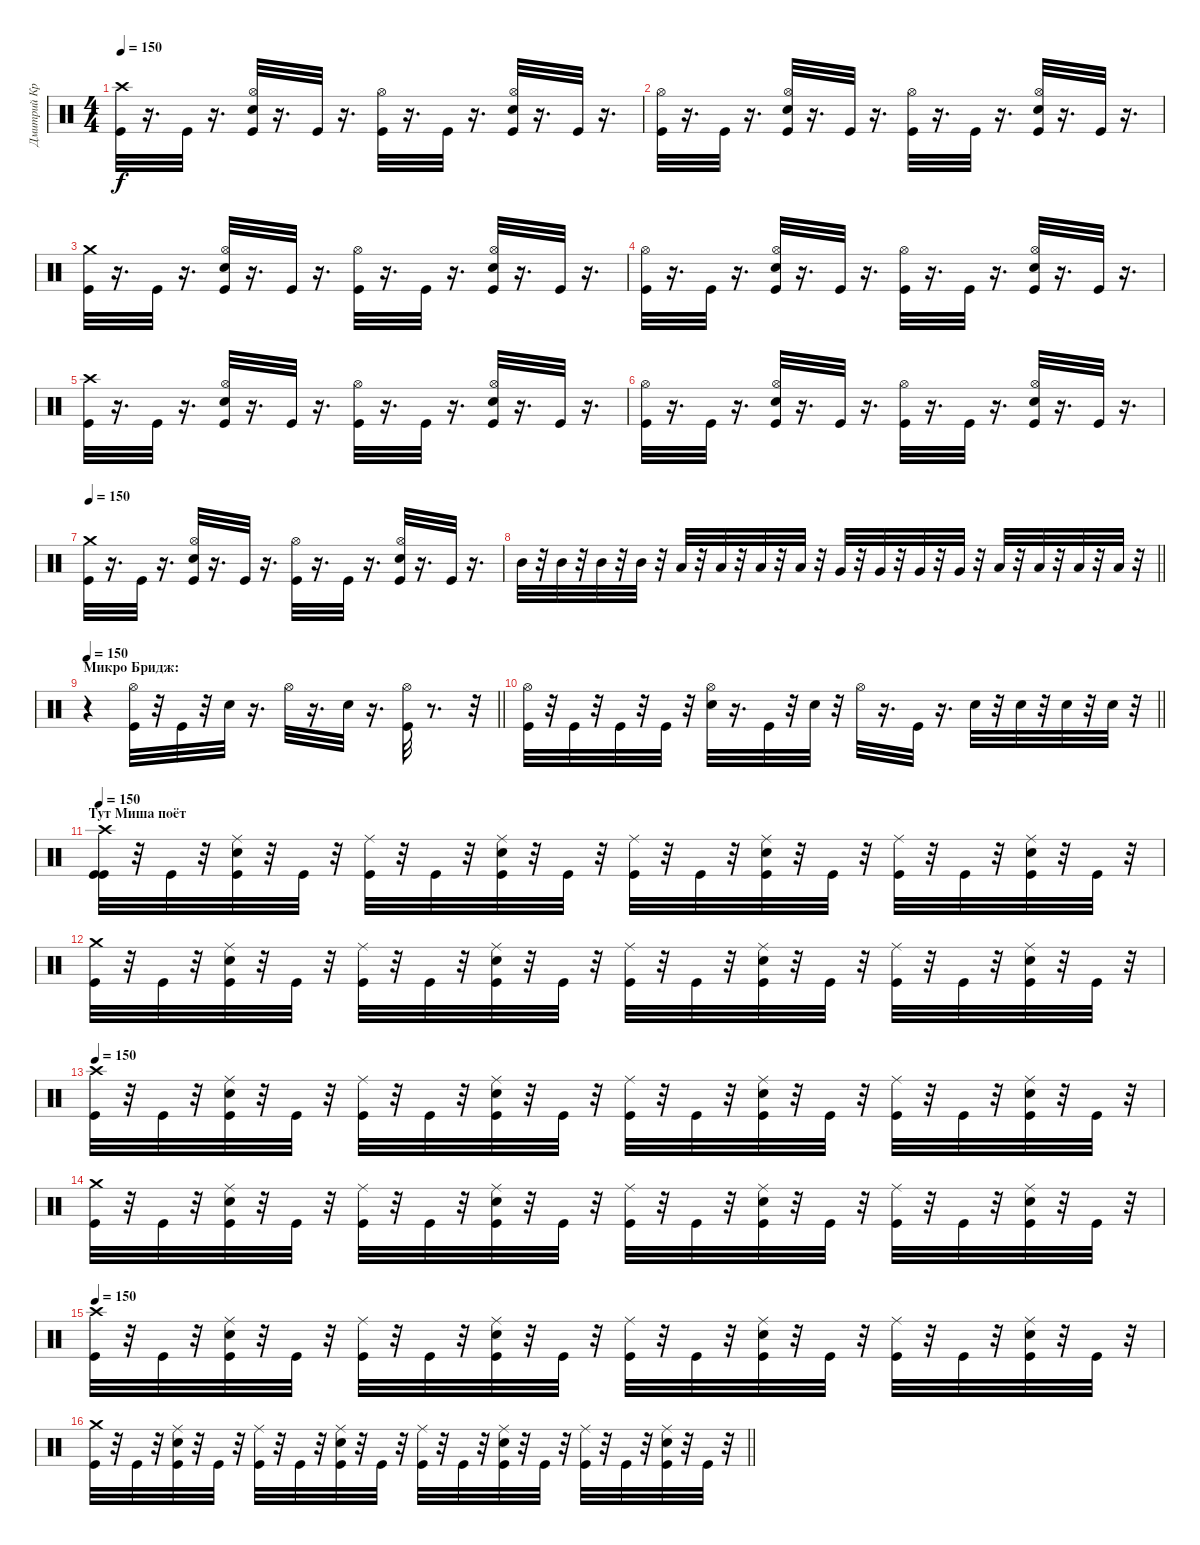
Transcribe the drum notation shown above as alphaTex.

\track ("Дмитрий Кривенков" "Дмитрий Кр") {instrument percussion}
\staff {score}
\articulation defaults
\ts (4 4)
\tempo 150
\clef neutral
\ks c
("Crash high (hit)" "Kick (hit)").32{dy f} r.16{d} "Kick (hit)".32 r.16{d} ("Hi-Hat (open)" "Electric Snare (hit)" "Kick (hit)").32 r.16{d} "Kick (hit)".32 r.16{d} ("Hi-Hat (open)" "Kick (hit)").32 r.16{d} "Kick (hit)".32 r.16{d} ("Hi-Hat (open)" "Electric Snare (hit)" "Kick (hit)").32 r.16{d} "Kick (hit)".32 r.16{d} |
("Hi-Hat (open)" "Kick (hit)").32 r.16{d} "Kick (hit)".32 r.16{d} ("Hi-Hat (open)" "Electric Snare (hit)" "Kick (hit)").32 r.16{d} "Kick (hit)".32 r.16{d} ("Hi-Hat (open)" "Kick (hit)").32 r.16{d} "Kick (hit)".32 r.16{d} ("Hi-Hat (open)" "Electric Snare (hit)" "Kick (hit)").32 r.16{d} "Kick (hit)".32 r.16{d} |
("Crash medium (hit)" "Kick (hit)").32 r.16{d} "Kick (hit)".32 r.16{d} ("Hi-Hat (open)" "Electric Snare (hit)" "Kick (hit)").32 r.16{d} "Kick (hit)".32 r.16{d} ("Hi-Hat (open)" "Kick (hit)").32 r.16{d} "Kick (hit)".32 r.16{d} ("Hi-Hat (open)" "Electric Snare (hit)" "Kick (hit)").32 r.16{d} "Kick (hit)".32 r.16{d} |
("Hi-Hat (open)" "Kick (hit)").32 r.16{d} "Kick (hit)".32 r.16{d} ("Hi-Hat (open)" "Electric Snare (hit)" "Kick (hit)").32 r.16{d} "Kick (hit)".32 r.16{d} ("Hi-Hat (open)" "Kick (hit)").32 r.16{d} "Kick (hit)".32 r.16{d} ("Hi-Hat (open)" "Electric Snare (hit)" "Kick (hit)").32 r.16{d} "Kick (hit)".32 r.16{d} |
("Crash high (hit)" "Kick (hit)").32 r.16{d} "Kick (hit)".32 r.16{d} ("Hi-Hat (open)" "Electric Snare (hit)" "Kick (hit)").32 r.16{d} "Kick (hit)".32 r.16{d} ("Hi-Hat (open)" "Kick (hit)").32 r.16{d} "Kick (hit)".32 r.16{d} ("Hi-Hat (open)" "Electric Snare (hit)" "Kick (hit)").32 r.16{d} "Kick (hit)".32 r.16{d} |
("Hi-Hat (open)" "Kick (hit)").32 r.16{d} "Kick (hit)".32 r.16{d} ("Hi-Hat (open)" "Electric Snare (hit)" "Kick (hit)").32 r.16{d} "Kick (hit)".32 r.16{d} ("Hi-Hat (open)" "Kick (hit)").32 r.16{d} "Kick (hit)".32 r.16{d} ("Hi-Hat (open)" "Electric Snare (hit)" "Kick (hit)").32 r.16{d} "Kick (hit)".32 r.16{d} |
\tempo 150
("Crash medium (hit)" "Kick (hit)").32 r.16{d} "Kick (hit)".32 r.16{d} ("Hi-Hat (open)" "Electric Snare (hit)" "Kick (hit)").32 r.16{d} "Kick (hit)".32 r.16{d} ("Hi-Hat (open)" "Kick (hit)").32 r.16{d} "Kick (hit)".32 r.16{d} ("Hi-Hat (open)" "Electric Snare (hit)" "Kick (hit)").32 r.16{d} "Kick (hit)".32 r.16{d} |
\barLineRight lightlight "Mid Tom (hit)".32
r.32 "Mid Tom (hit)".32 r.32 "Mid Tom (hit)".32 r.32 "Mid Tom (hit)".32 r.32 "Low Tom (hit)".32 r.32 "Low Tom (hit)".32 r.32 "Low Tom (hit)".32 r.32 "Low Tom (hit)".32 r.32 "Very Low Tom (hit)".32 r.32 "Very Low Tom (hit)".32 r.32 "Very Low Tom (hit)".32 r.32 "Very Low Tom (hit)".32 r.32 "Low Floor Tom (hit)".32 r.32 "Low Floor Tom (hit)".32 r.32 "Low Floor Tom (hit)".32 r.32 "Low Floor Tom (hit)".32 r.32 |
\section ("" "Микро Бридж:")
\tempo 150
\barLineRight lightlight
r.4 ("Hi-Hat (open)" "Kick (hit)").32 r.32 "Kick (hit)".32 r.32 "Electric Snare (hit)".32 r.16{d} "Hi-Hat (open)".32 r.16{d} "Electric Snare (hit)".32 r.16{d} ("Hi-Hat (open)" "Kick (hit)").32 r.8{d} r.32 |
\section ("" "")
\barLineRight lightlight
("Hi-Hat (open)" "Kick (hit)").32 r.32 "Kick (hit)".32 r.32 "Kick (hit)".32 r.32 "Kick (hit)".32 r.32 ("Hi-Hat (open)" "Electric Snare (hit)").32 r.16{d} "Kick (hit)".32 r.32 "Electric Snare (hit)".32 r.32 "Hi-Hat (open)".32 r.16{d} "Kick (hit)".32 r.16{d} "Electric Snare (hit)".32 r.32 "Electric Snare (hit)".32 r.32 "Electric Snare (hit)".32 r.32 "Electric Snare (hit)".32 r.32 |
\section ("" "Тут Миша поёт")
\tempo 150
("Kick (hit)" "Crash high (hit)" "Kick (hit)").32 r.32 "Kick (hit)".32 r.32 ("Ride (middle)" "Electric Snare (hit)" "Kick (hit)").32 r.32 "Kick (hit)".32 r.32 ("Ride (middle)" "Kick (hit)").32 r.32 "Kick (hit)".32 r.32 ("Ride (middle)" "Electric Snare (hit)" "Kick (hit)").32 r.32 "Kick (hit)".32 r.32 ("Ride (middle)" "Kick (hit)").32 r.32 "Kick (hit)".32 r.32 ("Ride (middle)" "Electric Snare (hit)" "Kick (hit)").32 r.32 "Kick (hit)".32 r.32 ("Ride (middle)" "Kick (hit)").32 r.32 "Kick (hit)".32 r.32 ("Ride (middle)" "Electric Snare (hit)" "Kick (hit)").32 r.32 "Kick (hit)".32 r.32 |
("Crash medium (hit)" "Kick (hit)").32 r.32 "Kick (hit)".32 r.32 ("Ride (middle)" "Electric Snare (hit)" "Kick (hit)").32 r.32 "Kick (hit)".32 r.32 ("Ride (middle)" "Kick (hit)").32 r.32 "Kick (hit)".32 r.32 ("Ride (middle)" "Electric Snare (hit)" "Kick (hit)").32 r.32 "Kick (hit)".32 r.32 ("Ride (middle)" "Kick (hit)").32 r.32 "Kick (hit)".32 r.32 ("Ride (middle)" "Electric Snare (hit)" "Kick (hit)").32 r.32 "Kick (hit)".32 r.32 ("Ride (middle)" "Kick (hit)").32 r.32 "Kick (hit)".32 r.32 ("Ride (middle)" "Electric Snare (hit)" "Kick (hit)").32 r.32 "Kick (hit)".32 r.32 |
\tempo 150
("Crash high (hit)" "Kick (hit)").32 r.32 "Kick (hit)".32 r.32 ("Ride (middle)" "Electric Snare (hit)" "Kick (hit)").32 r.32 "Kick (hit)".32 r.32 ("Ride (middle)" "Kick (hit)").32 r.32 "Kick (hit)".32 r.32 ("Ride (middle)" "Electric Snare (hit)" "Kick (hit)").32 r.32 "Kick (hit)".32 r.32 ("Ride (middle)" "Kick (hit)").32 r.32 "Kick (hit)".32 r.32 ("Ride (middle)" "Electric Snare (hit)" "Kick (hit)").32 r.32 "Kick (hit)".32 r.32 ("Ride (middle)" "Kick (hit)").32 r.32 "Kick (hit)".32 r.32 ("Ride (middle)" "Electric Snare (hit)" "Kick (hit)").32 r.32 "Kick (hit)".32 r.32 |
("Kick (hit)" "Crash medium (hit)").32 r.32 "Kick (hit)".32 r.32 ("Kick (hit)" "Electric Snare (hit)" "Ride (middle)").32 r.32 "Kick (hit)".32 r.32 ("Kick (hit)" "Ride (middle)").32 r.32 "Kick (hit)".32 r.32 ("Kick (hit)" "Electric Snare (hit)" "Ride (middle)").32 r.32 "Kick (hit)".32 r.32 ("Kick (hit)" "Ride (middle)").32 r.32 "Kick (hit)".32 r.32 ("Kick (hit)" "Electric Snare (hit)" "Ride (middle)").32 r.32 "Kick (hit)".32 r.32 ("Kick (hit)" "Ride (middle)").32 r.32 "Kick (hit)".32 r.32 ("Kick (hit)" "Electric Snare (hit)" "Ride (middle)").32 r.32 "Kick (hit)".32 r.32 |
\tempo 150
("Crash high (hit)" "Kick (hit)").32 r.32 "Kick (hit)".32 r.32 ("Ride (middle)" "Electric Snare (hit)" "Kick (hit)").32 r.32 "Kick (hit)".32 r.32 ("Ride (middle)" "Kick (hit)").32 r.32 "Kick (hit)".32 r.32 ("Ride (middle)" "Electric Snare (hit)" "Kick (hit)").32 r.32 "Kick (hit)".32 r.32 ("Ride (middle)" "Kick (hit)").32 r.32 "Kick (hit)".32 r.32 ("Ride (middle)" "Electric Snare (hit)" "Kick (hit)").32 r.32 "Kick (hit)".32 r.32 ("Ride (middle)" "Kick (hit)").32 r.32 "Kick (hit)".32 r.32 ("Ride (middle)" "Electric Snare (hit)" "Kick (hit)").32 r.32 "Kick (hit)".32 r.32 |
\barLineRight lightlight
("Kick (hit)" "Crash medium (hit)").32 r.32 "Kick (hit)".32 r.32 ("Kick (hit)" "Electric Snare (hit)" "Ride (middle)").32 r.32 "Kick (hit)".32 r.32 ("Kick (hit)" "Ride (middle)").32 r.32 "Kick (hit)".32 r.32 ("Kick (hit)" "Ride (middle)" "Electric Snare (hit)").32 r.32 "Kick (hit)".32 r.32 ("Kick (hit)" "Ride (middle)").32 r.32 "Kick (hit)".32 r.32 ("Kick (hit)" "Electric Snare (hit)" "Ride (middle)").32 r.32 "Kick (hit)".32 r.32 ("Kick (hit)" "Ride (middle)").32 r.32 "Kick (hit)".32 r.32 ("Kick (hit)" "Electric Snare (hit)" "Ride (middle)").32 r.32 "Kick (hit)".32 r.32
